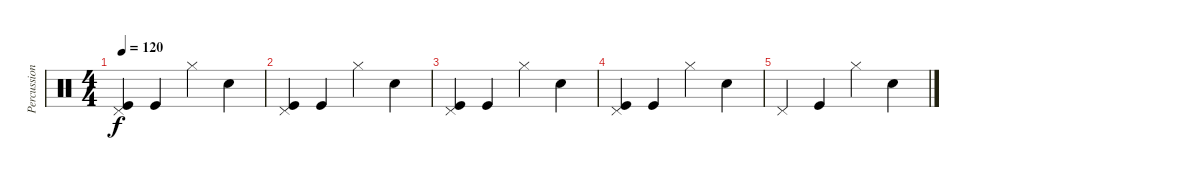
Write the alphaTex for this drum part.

\track ("Percussion" "Percussion") {instrument percussion}
\staff {score}
\articulation defaults
\ts (4 4)
\tempo 120
\clef neutral
\ks c
("Pedal Hi-Hat (hit)" "Kick (hit)").4{dy f} "Kick (hit)".4 "Hi-Hat (closed)".4 "Snare (hit) 2".4 |
("Pedal Hi-Hat (hit)" "Kick (hit)").4 "Kick (hit)".4 "Hi-Hat (closed)".4 "Snare (hit) 2".4 |
("Pedal Hi-Hat (hit)" "Kick (hit)").4 "Kick (hit)".4 "Hi-Hat (closed)".4 "Snare (hit) 2".4 |
("Pedal Hi-Hat (hit)" "Kick (hit)").4 "Kick (hit)".4 "Hi-Hat (closed)".4 "Snare (hit) 2".4 |
"Pedal Hi-Hat (hit)".4 "Kick (hit)".4 "Hi-Hat (closed)".4 "Snare (hit) 2".4
